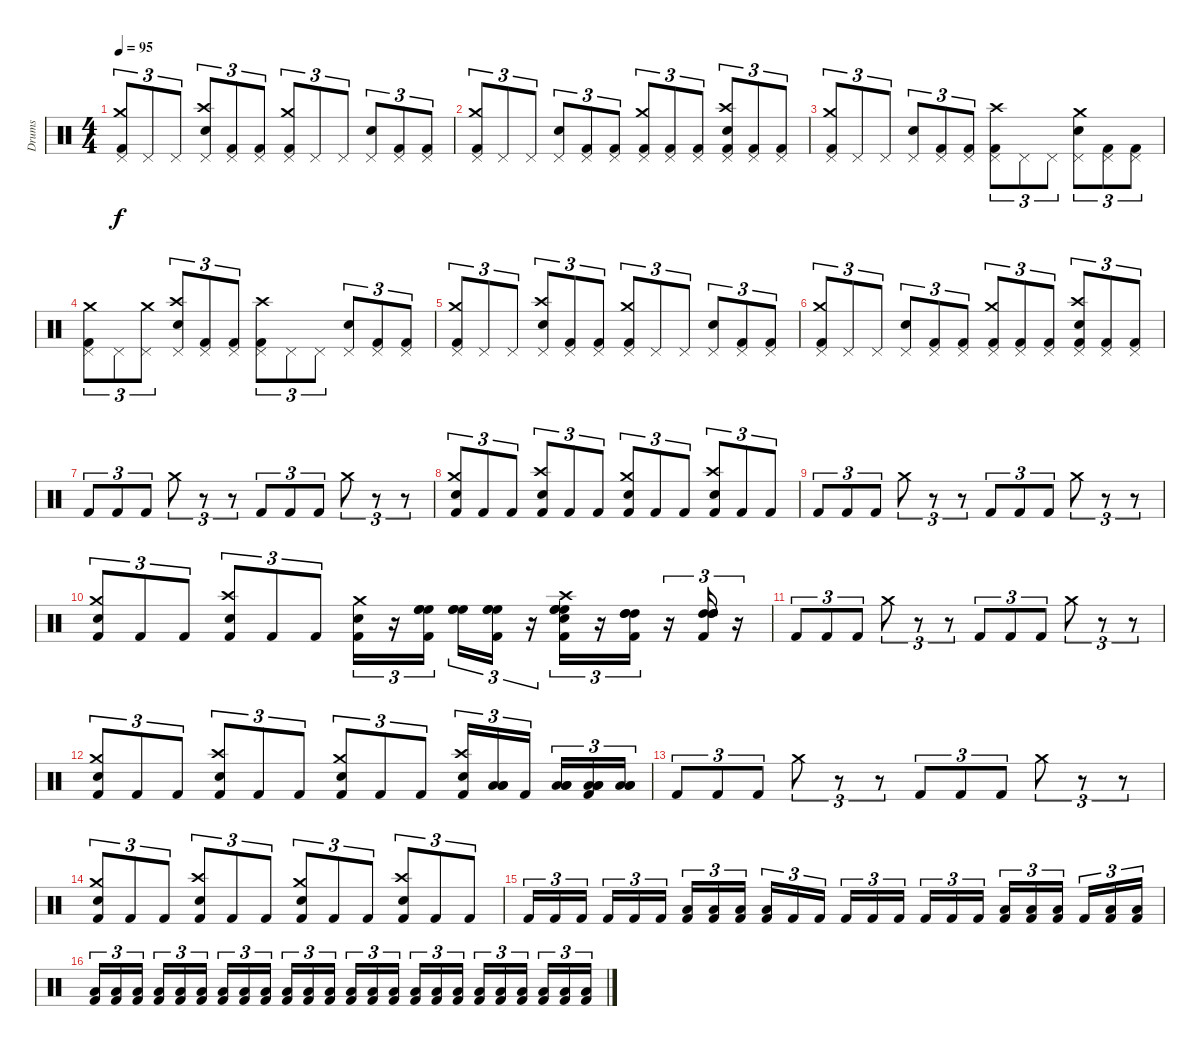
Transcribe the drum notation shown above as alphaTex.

\track ("Drums" "Drums") {instrument percussion}
\staff {score}
\articulation defaults
\ts (4 4)
\tempo 95
\clef neutral
\ks c
("Kick (hit) 2" "Crash medium (hit)" "Pedal Hi-Hat (hit)").8{tu (3 2) dy f} "Pedal Hi-Hat (hit)".8{tu (3 2)} "Pedal Hi-Hat (hit)".8{tu (3 2)} ("Crash high (hit)" "Snare (hit) 2" "Pedal Hi-Hat (hit)").8{tu (3 2)} ("Kick (hit) 2" "Pedal Hi-Hat (hit)").8{tu (3 2)} ("Kick (hit) 2" "Pedal Hi-Hat (hit)").8{tu (3 2)} ("Kick (hit) 2" "Crash medium (hit)" "Pedal Hi-Hat (hit)").8{tu (3 2)} "Pedal Hi-Hat (hit)".8{tu (3 2)} "Pedal Hi-Hat (hit)".8{tu (3 2)} ("Snare (hit) 2" "Pedal Hi-Hat (hit)").8{tu (3 2)} ("Kick (hit) 2" "Pedal Hi-Hat (hit)").8{tu (3 2)} ("Kick (hit) 2" "Pedal Hi-Hat (hit)").8{tu (3 2)} |
("Kick (hit) 2" "Crash medium (hit)" "Pedal Hi-Hat (hit)").8{tu (3 2)} "Pedal Hi-Hat (hit)".8{tu (3 2)} "Pedal Hi-Hat (hit)".8{tu (3 2)} ("Snare (hit) 2" "Pedal Hi-Hat (hit)").8{tu (3 2)} ("Kick (hit) 2" "Pedal Hi-Hat (hit)").8{tu (3 2)} ("Kick (hit) 2" "Pedal Hi-Hat (hit)").8{tu (3 2)} ("Kick (hit) 2" "Crash medium (hit)" "Pedal Hi-Hat (hit)").8{tu (3 2)} ("Kick (hit) 2" "Pedal Hi-Hat (hit)").8{tu (3 2)} ("Kick (hit) 2" "Pedal Hi-Hat (hit)").8{tu (3 2)} ("Kick (hit) 2" "Crash high (hit)" "Snare (hit) 2" "Pedal Hi-Hat (hit)").8{tu (3 2)} ("Kick (hit) 2" "Pedal Hi-Hat (hit)").8{tu (3 2)} ("Kick (hit) 2" "Pedal Hi-Hat (hit)").8{tu (3 2)} |
("Kick (hit) 2" "Crash medium (hit)" "Pedal Hi-Hat (hit)").8{tu (3 2)} "Pedal Hi-Hat (hit)".8{tu (3 2)} "Pedal Hi-Hat (hit)".8{tu (3 2)} ("Snare (hit) 2" "Pedal Hi-Hat (hit)").8{tu (3 2)} ("Kick (hit) 2" "Pedal Hi-Hat (hit)").8{tu (3 2)} ("Kick (hit) 2" "Pedal Hi-Hat (hit)").8{tu (3 2)} ("Kick (hit) 2" "Crash high (hit)" "Pedal Hi-Hat (hit)").8{tu (3 2)} "Pedal Hi-Hat (hit)".8{tu (3 2)} "Pedal Hi-Hat (hit)".8{tu (3 2)} ("Crash medium (hit)" "Snare (hit) 2" "Pedal Hi-Hat (hit)").8{tu (3 2)} ("Kick (hit) 2" "Pedal Hi-Hat (hit)").8{tu (3 2)} ("Kick (hit) 2" "Pedal Hi-Hat (hit)").8{tu (3 2)} |
("Kick (hit) 2" "Crash medium (hit)" "Pedal Hi-Hat (hit)").8{tu (3 2)} "Pedal Hi-Hat (hit)".8{tu (3 2)} ("Crash medium (hit)" "Pedal Hi-Hat (hit)").8{tu (3 2)} ("Crash high (hit)" "Snare (hit) 2" "Pedal Hi-Hat (hit)").8{tu (3 2)} ("Kick (hit) 2" "Pedal Hi-Hat (hit)").8{tu (3 2)} ("Kick (hit) 2" "Pedal Hi-Hat (hit)").8{tu (3 2)} ("Kick (hit) 2" "Crash high (hit)" "Pedal Hi-Hat (hit)").8{tu (3 2)} "Pedal Hi-Hat (hit)".8{tu (3 2)} "Pedal Hi-Hat (hit)".8{tu (3 2)} ("Snare (hit) 2" "Pedal Hi-Hat (hit)").8{tu (3 2)} ("Kick (hit) 2" "Pedal Hi-Hat (hit)").8{tu (3 2)} ("Kick (hit) 2" "Pedal Hi-Hat (hit)").8{tu (3 2)} |
("Kick (hit) 2" "Crash medium (hit)" "Pedal Hi-Hat (hit)").8{tu (3 2)} "Pedal Hi-Hat (hit)".8{tu (3 2)} "Pedal Hi-Hat (hit)".8{tu (3 2)} ("Crash high (hit)" "Snare (hit) 2" "Pedal Hi-Hat (hit)").8{tu (3 2)} ("Kick (hit) 2" "Pedal Hi-Hat (hit)").8{tu (3 2)} ("Kick (hit) 2" "Pedal Hi-Hat (hit)").8{tu (3 2)} ("Kick (hit) 2" "Crash medium (hit)" "Pedal Hi-Hat (hit)").8{tu (3 2)} "Pedal Hi-Hat (hit)".8{tu (3 2)} "Pedal Hi-Hat (hit)".8{tu (3 2)} ("Snare (hit) 2" "Pedal Hi-Hat (hit)").8{tu (3 2)} ("Kick (hit) 2" "Pedal Hi-Hat (hit)").8{tu (3 2)} ("Kick (hit) 2" "Pedal Hi-Hat (hit)").8{tu (3 2)} |
("Kick (hit) 2" "Crash medium (hit)" "Pedal Hi-Hat (hit)").8{tu (3 2)} "Pedal Hi-Hat (hit)".8{tu (3 2)} "Pedal Hi-Hat (hit)".8{tu (3 2)} ("Snare (hit) 2" "Pedal Hi-Hat (hit)").8{tu (3 2)} ("Kick (hit) 2" "Pedal Hi-Hat (hit)").8{tu (3 2)} ("Kick (hit) 2" "Pedal Hi-Hat (hit)").8{tu (3 2)} ("Kick (hit) 2" "Crash medium (hit)" "Pedal Hi-Hat (hit)").8{tu (3 2)} ("Kick (hit) 2" "Pedal Hi-Hat (hit)").8{tu (3 2)} ("Kick (hit) 2" "Pedal Hi-Hat (hit)").8{tu (3 2)} ("Kick (hit) 2" "Crash high (hit)" "Snare (hit) 2" "Pedal Hi-Hat (hit)").8{tu (3 2)} ("Kick (hit) 2" "Pedal Hi-Hat (hit)").8{tu (3 2)} ("Kick (hit) 2" "Pedal Hi-Hat (hit)").8{tu (3 2)} |
"Kick (hit) 2".8{tu (3 2)} "Kick (hit) 2".8{tu (3 2)} "Kick (hit) 2".8{tu (3 2)} "Crash medium (hit)".8{tu (3 2)} r.8{tu (3 2)} r.8{tu (3 2)} "Kick (hit) 2".8{tu (3 2)} "Kick (hit) 2".8{tu (3 2)} "Kick (hit) 2".8{tu (3 2)} "Crash medium (hit)".8{tu (3 2)} r.8{tu (3 2)} r.8{tu (3 2)} |
("Kick (hit) 2" "Crash medium (hit)" "Snare (hit) 2").8{tu (3 2)} "Kick (hit) 2".8{tu (3 2)} "Kick (hit) 2".8{tu (3 2)} ("Kick (hit) 2" "Crash high (hit)" "Snare (hit) 2").8{tu (3 2)} "Kick (hit) 2".8{tu (3 2)} "Kick (hit) 2".8{tu (3 2)} ("Kick (hit) 2" "Crash medium (hit)" "Snare (hit) 2").8{tu (3 2)} "Kick (hit) 2".8{tu (3 2)} "Kick (hit) 2".8{tu (3 2)} ("Kick (hit) 2" "Crash high (hit)" "Snare (hit) 2").8{tu (3 2)} "Kick (hit) 2".8{tu (3 2)} "Kick (hit) 2".8{tu (3 2)} |
"Kick (hit) 2".8{tu (3 2)} "Kick (hit) 2".8{tu (3 2)} "Kick (hit) 2".8{tu (3 2)} "Crash medium (hit)".8{tu (3 2)} r.8{tu (3 2)} r.8{tu (3 2)} "Kick (hit) 2".8{tu (3 2)} "Kick (hit) 2".8{tu (3 2)} "Kick (hit) 2".8{tu (3 2)} "Crash medium (hit)".8{tu (3 2)} r.8{tu (3 2)} r.8{tu (3 2)} |
("Kick (hit) 2" "Crash medium (hit)" "Snare (hit) 2").8{tu (3 2)} "Kick (hit) 2".8{tu (3 2)} "Kick (hit) 2".8{tu (3 2)} ("Kick (hit) 2" "Crash high (hit)" "Snare (hit) 2").8{tu (3 2)} "Kick (hit) 2".8{tu (3 2)} "Kick (hit) 2".8{tu (3 2)} ("Kick (hit) 2" "Crash medium (hit)" "Snare (hit) 2").16{tu (3 2)} r.16{tu (3 2)} ("Kick (hit) 2" "High Floor Tom (hit)" "High Floor Tom (hit)" "High Floor Tom (hit)").16{tu (3 2) beam splitsecondary} ("High Floor Tom (hit)" "High Floor Tom (hit)" "High Floor Tom (hit)").16{tu (3 2)} ("Kick (hit) 2" "High Floor Tom (hit)" "High Floor Tom (hit)" "High Floor Tom (hit)").16{tu (3 2)} r.16{tu (3 2)} ("Kick (hit) 2" "Crash high (hit)" "Snare (hit) 2" "High Floor Tom (hit)" "High Floor Tom (hit)" "High Floor Tom (hit)").16{tu (3 2)} r.16{tu (3 2)} ("Kick (hit) 2" "High Tom (hit)" "High Tom (hit)" "High Tom (hit)").16{tu (3 2)} r.16{tu (3 2)} ("Kick (hit) 2" "High Tom (hit)" "High Tom (hit)" "High Tom (hit)").16{tu (3 2)} r.16{tu (3 2)} |
"Kick (hit) 2".8{tu (3 2)} "Kick (hit) 2".8{tu (3 2)} "Kick (hit) 2".8{tu (3 2)} "Crash medium (hit)".8{tu (3 2)} r.8{tu (3 2)} r.8{tu (3 2)} "Kick (hit) 2".8{tu (3 2)} "Kick (hit) 2".8{tu (3 2)} "Kick (hit) 2".8{tu (3 2)} "Crash medium (hit)".8{tu (3 2)} r.8{tu (3 2)} r.8{tu (3 2)} |
("Kick (hit) 2" "Crash medium (hit)" "Snare (hit) 2").8{tu (3 2)} "Kick (hit) 2".8{tu (3 2)} "Kick (hit) 2".8{tu (3 2)} ("Kick (hit) 2" "Crash high (hit)" "Snare (hit) 2").8{tu (3 2)} "Kick (hit) 2".8{tu (3 2)} "Kick (hit) 2".8{tu (3 2)} ("Kick (hit) 2" "Crash medium (hit)" "Snare (hit) 2").8{tu (3 2)} "Kick (hit) 2".8{tu (3 2)} "Kick (hit) 2".8{tu (3 2)} ("Kick (hit) 2" "Crash high (hit)" "Snare (hit) 2").16{tu (3 2)} ("Low Tom (hit)" "Low Tom (hit)" "Low Tom (hit)").16{tu (3 2)} "Kick (hit) 2".16{tu (3 2) beam splitsecondary} ("Low Tom (hit)" "Low Tom (hit)" "Low Tom (hit)").16{tu (3 2)} ("Kick (hit) 2" "Low Tom (hit)" "Low Tom (hit)" "Low Tom (hit)").16{tu (3 2)} ("Low Floor Tom (hit)" "Low Floor Tom (hit)" "Low Floor Tom (hit)").16{tu (3 2)} |
"Kick (hit) 2".8{tu (3 2)} "Kick (hit) 2".8{tu (3 2)} "Kick (hit) 2".8{tu (3 2)} "Crash medium (hit)".8{tu (3 2)} r.8{tu (3 2)} r.8{tu (3 2)} "Kick (hit) 2".8{tu (3 2)} "Kick (hit) 2".8{tu (3 2)} "Kick (hit) 2".8{tu (3 2)} "Crash medium (hit)".8{tu (3 2)} r.8{tu (3 2)} r.8{tu (3 2)} |
("Kick (hit) 2" "Crash medium (hit)" "Snare (hit) 2").8{tu (3 2)} "Kick (hit) 2".8{tu (3 2)} "Kick (hit) 2".8{tu (3 2)} ("Kick (hit) 2" "Crash high (hit)" "Snare (hit) 2").8{tu (3 2)} "Kick (hit) 2".8{tu (3 2)} "Kick (hit) 2".8{tu (3 2)} ("Kick (hit) 2" "Crash medium (hit)" "Snare (hit) 2").8{tu (3 2)} "Kick (hit) 2".8{tu (3 2)} "Kick (hit) 2".8{tu (3 2)} ("Kick (hit) 2" "Crash high (hit)" "Snare (hit) 2").8{tu (3 2)} "Kick (hit) 2".8{tu (3 2)} "Kick (hit) 2".8{tu (3 2)} |
"Kick (hit) 2".16{tu (3 2)} "Kick (hit) 2".16{tu (3 2)} "Kick (hit) 2".16{tu (3 2) beam splitsecondary} "Kick (hit) 2".16{tu (3 2)} "Kick (hit) 2".16{tu (3 2)} "Kick (hit) 2".16{tu (3 2)} ("Kick (hit) 2" "Low Tom (hit)").16{tu (3 2)} ("Kick (hit) 2" "Low Tom (hit)").16{tu (3 2)} ("Kick (hit) 2" "Low Floor Tom (hit)").16{tu (3 2) beam splitsecondary} ("Kick (hit) 2" "Low Floor Tom (hit)").16{tu (3 2)} "Kick (hit) 2".16{tu (3 2)} "Kick (hit) 2".16{tu (3 2)} "Kick (hit) 2".16{tu (3 2)} "Kick (hit) 2".16{tu (3 2)} "Kick (hit) 2".16{tu (3 2) beam splitsecondary} "Kick (hit) 2".16{tu (3 2)} "Kick (hit) 2".16{tu (3 2)} "Kick (hit) 2".16{tu (3 2)} ("Kick (hit) 2" "Low Tom (hit)").16{tu (3 2)} ("Kick (hit) 2" "Low Floor Tom (hit)").16{tu (3 2)} ("Kick (hit) 2" "Low Floor Tom (hit)").16{tu (3 2) beam splitsecondary} "Kick (hit) 2".16{tu (3 2)} ("Kick (hit) 2" "Low Floor Tom (hit)").16{tu (3 2)} ("Kick (hit) 2" "Low Tom (hit)").16{tu (3 2)} |
("Kick (hit) 2" "Low Tom (hit)").16{tu (3 2)} ("Kick (hit) 2" "Low Tom (hit)").16{tu (3 2)} ("Kick (hit) 2" "Low Tom (hit)").16{tu (3 2) beam splitsecondary} ("Kick (hit) 2" "Low Floor Tom (hit)").16{tu (3 2)} ("Kick (hit) 2" "Low Floor Tom (hit)").16{tu (3 2)} ("Kick (hit) 2" "Low Floor Tom (hit)").16{tu (3 2)} ("Kick (hit) 2" "Low Tom (hit)").16{tu (3 2)} ("Kick (hit) 2" "Low Tom (hit)").16{tu (3 2)} ("Kick (hit) 2" "Low Tom (hit)").16{tu (3 2) beam splitsecondary} ("Kick (hit) 2" "Low Floor Tom (hit)").16{tu (3 2)} ("Kick (hit) 2" "Low Floor Tom (hit)").16{tu (3 2)} ("Kick (hit) 2" "Low Floor Tom (hit)").16{tu (3 2)} ("Kick (hit) 2" "Low Tom (hit)").16{tu (3 2)} ("Kick (hit) 2" "Low Tom (hit)").16{tu (3 2)} ("Kick (hit) 2" "Low Floor Tom (hit)").16{tu (3 2) beam splitsecondary} ("Kick (hit) 2" "Low Floor Tom (hit)").16{tu (3 2)} ("Kick (hit) 2" "Low Floor Tom (hit)").16{tu (3 2)} ("Kick (hit) 2" "Low Tom (hit)").16{tu (3 2)} ("Kick (hit) 2" "Low Tom (hit)").16{tu (3 2)} ("Kick (hit) 2" "Low Tom (hit)").16{tu (3 2)} ("Kick (hit) 2" "Low Floor Tom (hit)").16{tu (3 2) beam splitsecondary} ("Kick (hit) 2" "Low Floor Tom (hit)").16{tu (3 2)} ("Kick (hit) 2" "Low Floor Tom (hit)").16{tu (3 2)} ("Kick (hit) 2" "Low Tom (hit)").16{tu (3 2)}
